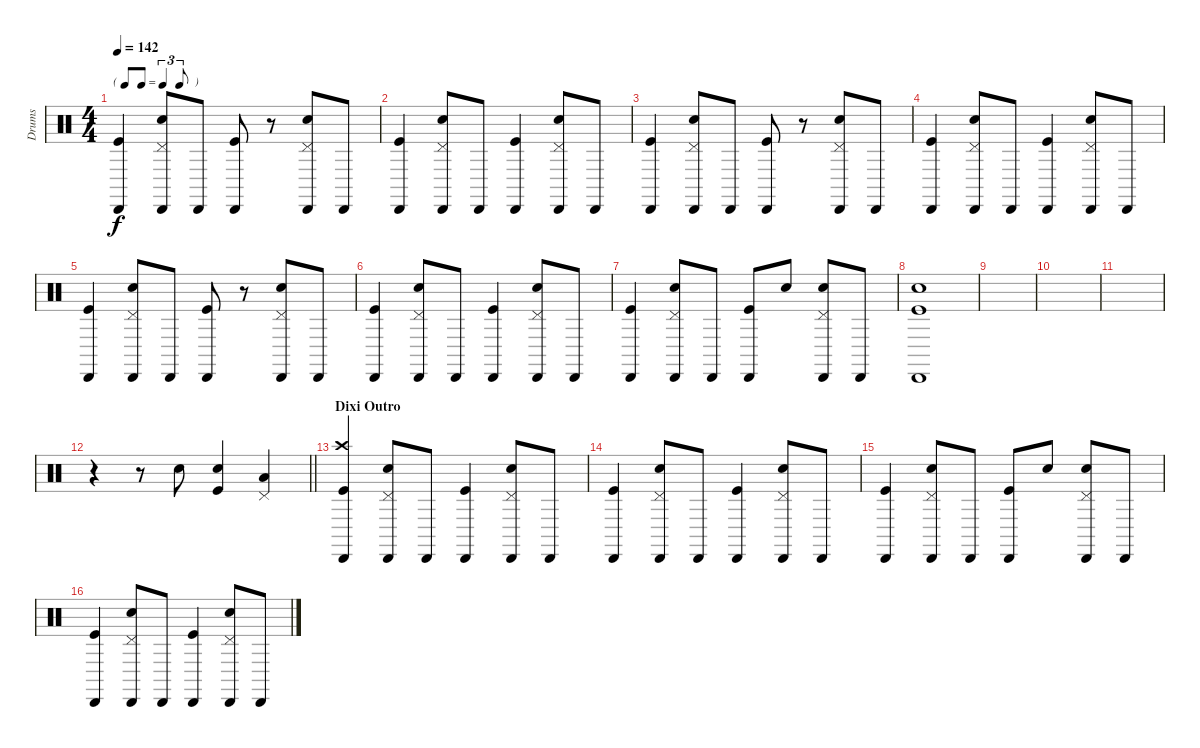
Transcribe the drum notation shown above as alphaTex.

\track ("Drums" "Drums") {instrument percussion}
\staff {score}
\articulation defaults
\ts (4 4)
\tf triplet8th
\tempo 142
\clef neutral
\ks c
("Cabasa (hit)" "Kick (hit)").4{dy f} ("Pedal Hi-Hat (hit)" "Cabasa (hit)" "Snare (hit) 2").8 "Cabasa (hit)".8 ("Cabasa (hit)" "Kick (hit)").8 r.8 ("Pedal Hi-Hat (hit)" "Cabasa (hit)" "Snare (hit) 2").8 "Cabasa (hit)".8 |
("Cabasa (hit)" "Kick (hit)").4 ("Pedal Hi-Hat (hit)" "Cabasa (hit)" "Snare (hit) 2").8 "Cabasa (hit)".8 ("Cabasa (hit)" "Kick (hit)").4 ("Pedal Hi-Hat (hit)" "Cabasa (hit)" "Snare (hit) 2").8 "Cabasa (hit)".8 |
("Cabasa (hit)" "Kick (hit)").4 ("Pedal Hi-Hat (hit)" "Cabasa (hit)" "Snare (hit) 2").8 "Cabasa (hit)".8 ("Cabasa (hit)" "Kick (hit)").8 r.8 ("Pedal Hi-Hat (hit)" "Cabasa (hit)" "Snare (hit) 2").8 "Cabasa (hit)".8 |
("Cabasa (hit)" "Kick (hit)").4 ("Pedal Hi-Hat (hit)" "Cabasa (hit)" "Snare (hit) 2").8 "Cabasa (hit)".8 ("Cabasa (hit)" "Kick (hit)").4 ("Pedal Hi-Hat (hit)" "Cabasa (hit)" "Snare (hit) 2").8 "Cabasa (hit)".8 |
("Cabasa (hit)" "Kick (hit)").4 ("Pedal Hi-Hat (hit)" "Cabasa (hit)" "Snare (hit) 2").8 "Cabasa (hit)".8 ("Cabasa (hit)" "Kick (hit)").8 r.8 ("Pedal Hi-Hat (hit)" "Cabasa (hit)" "Snare (hit) 2").8 "Cabasa (hit)".8 |
("Cabasa (hit)" "Kick (hit)").4 ("Pedal Hi-Hat (hit)" "Cabasa (hit)" "Snare (hit) 2").8 "Cabasa (hit)".8 ("Cabasa (hit)" "Kick (hit)").4 ("Pedal Hi-Hat (hit)" "Cabasa (hit)" "Snare (hit) 2").8 "Cabasa (hit)".8 |
("Cabasa (hit)" "Kick (hit)").4 ("Pedal Hi-Hat (hit)" "Cabasa (hit)" "Snare (hit) 2").8 "Cabasa (hit)".8 ("Cabasa (hit)" "Kick (hit)").8 "Snare (hit) 2".8 ("Pedal Hi-Hat (hit)" "Cabasa (hit)" "Snare (hit) 2").8 "Cabasa (hit)".8 |
("Cabasa (hit)" "Snare (hit) 2" "Kick (hit)").1 |
|
|
|
\barLineRight lightlight
r.4 r.8 "Snare (hit) 2".8 ("Snare (hit) 2" "Kick (hit)").4 ("Pedal Hi-Hat (hit)" "Low Tom (hit)").4 |
\section ("" "Dixi Outro")
("Crash high (hit)" "Cabasa (hit)" "Kick (hit)").4 ("Pedal Hi-Hat (hit)" "Cabasa (hit)" "Snare (hit) 2").8 "Cabasa (hit)".8 ("Cabasa (hit)" "Kick (hit)").4 ("Pedal Hi-Hat (hit)" "Cabasa (hit)" "Snare (hit) 2").8 "Cabasa (hit)".8 |
("Cabasa (hit)" "Kick (hit)").4 ("Pedal Hi-Hat (hit)" "Cabasa (hit)" "Snare (hit) 2").8 "Cabasa (hit)".8 ("Cabasa (hit)" "Kick (hit)").4 ("Pedal Hi-Hat (hit)" "Cabasa (hit)" "Snare (hit) 2").8 "Cabasa (hit)".8 |
("Cabasa (hit)" "Kick (hit)").4 ("Pedal Hi-Hat (hit)" "Cabasa (hit)" "Snare (hit) 2").8 "Cabasa (hit)".8 ("Cabasa (hit)" "Kick (hit)").8 "Snare (hit) 2".8 ("Pedal Hi-Hat (hit)" "Cabasa (hit)" "Snare (hit) 2").8 "Cabasa (hit)".8 |
("Cabasa (hit)" "Kick (hit)").4 ("Pedal Hi-Hat (hit)" "Cabasa (hit)" "Snare (hit) 2").8 "Cabasa (hit)".8 ("Cabasa (hit)" "Kick (hit)").4 ("Pedal Hi-Hat (hit)" "Cabasa (hit)" "Snare (hit) 2").8 "Cabasa (hit)".8
